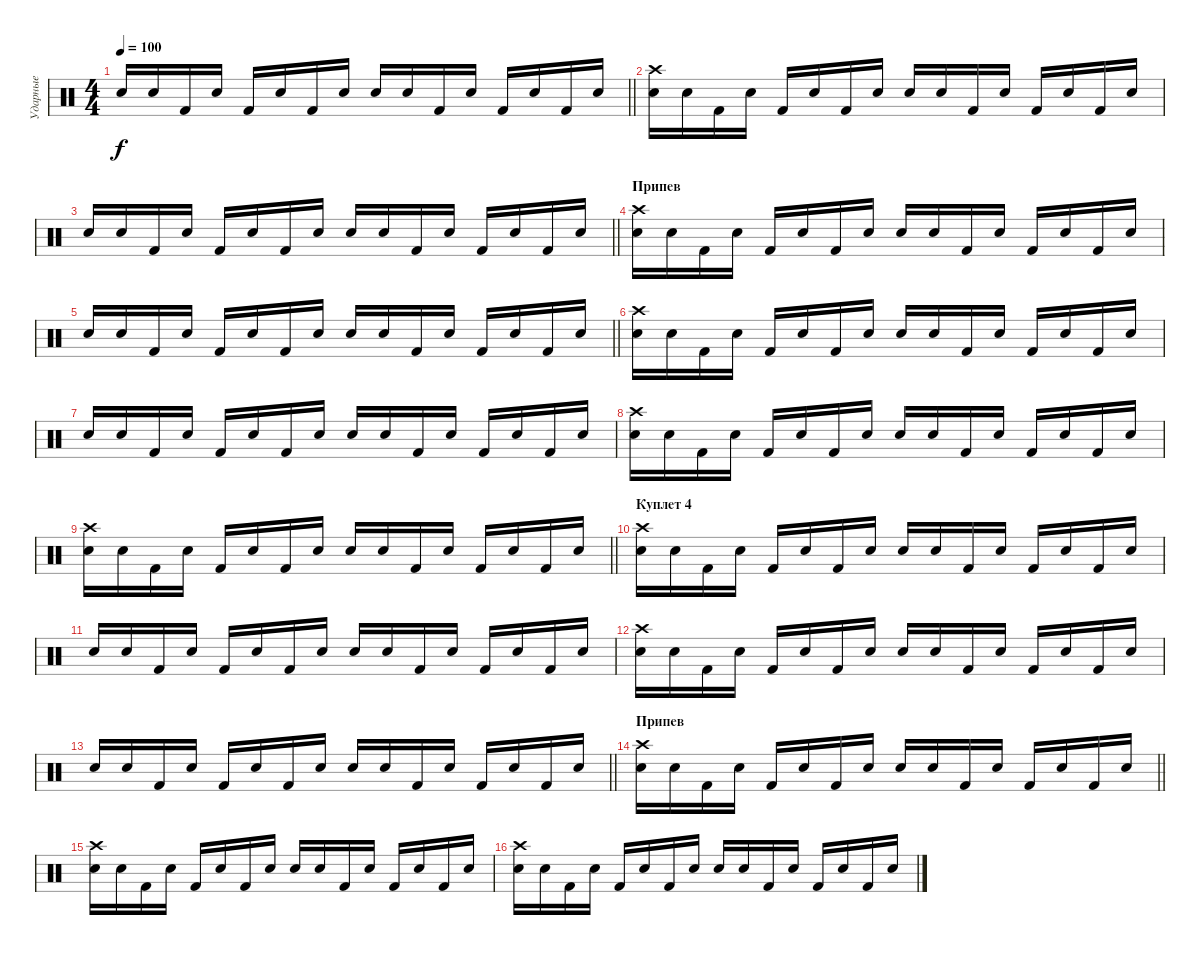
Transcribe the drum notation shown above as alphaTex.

\track ("Ударные" "Ударные") {instrument percussion}
\staff {score}
\articulation defaults
\ts (4 4)
\tempo 100
\clef neutral
\barLineRight lightlight
\ks c "Snare (hit) 2".16{dy f} "Snare (hit) 2".16 "Kick (hit) 2".16 "Snare (hit) 2".16 "Kick (hit) 2".16 "Snare (hit) 2".16 "Kick (hit) 2".16 "Snare (hit) 2".16 "Snare (hit) 2".16 "Snare (hit) 2".16 "Kick (hit) 2".16 "Snare (hit) 2".16 "Kick (hit) 2".16 "Snare (hit) 2".16 "Kick (hit) 2".16 "Snare (hit) 2".16
|
("Crash high (hit)" "Snare (hit) 2").16 "Snare (hit) 2".16 "Kick (hit) 2".16 "Snare (hit) 2".16 "Kick (hit) 2".16 "Snare (hit) 2".16 "Kick (hit) 2".16 "Snare (hit) 2".16 "Snare (hit) 2".16 "Snare (hit) 2".16 "Kick (hit) 2".16 "Snare (hit) 2".16 "Kick (hit) 2".16 "Snare (hit) 2".16 "Kick (hit) 2".16 "Snare (hit) 2".16 |
\barLineRight lightlight "Snare (hit) 2".16 "Snare (hit) 2".16 "Kick (hit) 2".16 "Snare (hit) 2".16 "Kick (hit) 2".16 "Snare (hit) 2".16 "Kick (hit) 2".16 "Snare (hit) 2".16 "Snare (hit) 2".16 "Snare (hit) 2".16 "Kick (hit) 2".16 "Snare (hit) 2".16 "Kick (hit) 2".16 "Snare (hit) 2".16 "Kick (hit) 2".16 "Snare (hit) 2".16
|
\section ("" "Припев")
("Crash high (hit)" "Snare (hit) 2").16 "Snare (hit) 2".16 "Kick (hit) 2".16 "Snare (hit) 2".16 "Kick (hit) 2".16 "Snare (hit) 2".16 "Kick (hit) 2".16 "Snare (hit) 2".16 "Snare (hit) 2".16 "Snare (hit) 2".16 "Kick (hit) 2".16 "Snare (hit) 2".16 "Kick (hit) 2".16 "Snare (hit) 2".16 "Kick (hit) 2".16 "Snare (hit) 2".16 |
\barLineRight lightlight "Snare (hit) 2".16 "Snare (hit) 2".16 "Kick (hit) 2".16 "Snare (hit) 2".16 "Kick (hit) 2".16 "Snare (hit) 2".16 "Kick (hit) 2".16 "Snare (hit) 2".16 "Snare (hit) 2".16 "Snare (hit) 2".16 "Kick (hit) 2".16 "Snare (hit) 2".16 "Kick (hit) 2".16 "Snare (hit) 2".16 "Kick (hit) 2".16 "Snare (hit) 2".16
|
("Crash high (hit)" "Snare (hit) 2").16 "Snare (hit) 2".16 "Kick (hit) 2".16 "Snare (hit) 2".16 "Kick (hit) 2".16 "Snare (hit) 2".16 "Kick (hit) 2".16 "Snare (hit) 2".16 "Snare (hit) 2".16 "Snare (hit) 2".16 "Kick (hit) 2".16 "Snare (hit) 2".16 "Kick (hit) 2".16 "Snare (hit) 2".16 "Kick (hit) 2".16 "Snare (hit) 2".16 |
"Snare (hit) 2".16 "Snare (hit) 2".16 "Kick (hit) 2".16 "Snare (hit) 2".16 "Kick (hit) 2".16 "Snare (hit) 2".16 "Kick (hit) 2".16 "Snare (hit) 2".16 "Snare (hit) 2".16 "Snare (hit) 2".16 "Kick (hit) 2".16 "Snare (hit) 2".16 "Kick (hit) 2".16 "Snare (hit) 2".16 "Kick (hit) 2".16 "Snare (hit) 2".16 |
("Crash high (hit)" "Snare (hit) 2").16 "Snare (hit) 2".16 "Kick (hit) 2".16 "Snare (hit) 2".16 "Kick (hit) 2".16 "Snare (hit) 2".16 "Kick (hit) 2".16 "Snare (hit) 2".16 "Snare (hit) 2".16 "Snare (hit) 2".16 "Kick (hit) 2".16 "Snare (hit) 2".16 "Kick (hit) 2".16 "Snare (hit) 2".16 "Kick (hit) 2".16 "Snare (hit) 2".16 |
\barLineRight lightlight
("Crash high (hit)" "Snare (hit) 2").16 "Snare (hit) 2".16 "Kick (hit) 2".16 "Snare (hit) 2".16 "Kick (hit) 2".16 "Snare (hit) 2".16 "Kick (hit) 2".16 "Snare (hit) 2".16 "Snare (hit) 2".16 "Snare (hit) 2".16 "Kick (hit) 2".16 "Snare (hit) 2".16 "Kick (hit) 2".16 "Snare (hit) 2".16 "Kick (hit) 2".16 "Snare (hit) 2".16 |
\section ("" "Куплет 4")
("Crash high (hit)" "Snare (hit) 2").16 "Snare (hit) 2".16 "Kick (hit) 2".16 "Snare (hit) 2".16 "Kick (hit) 2".16 "Snare (hit) 2".16 "Kick (hit) 2".16 "Snare (hit) 2".16 "Snare (hit) 2".16 "Snare (hit) 2".16 "Kick (hit) 2".16 "Snare (hit) 2".16 "Kick (hit) 2".16 "Snare (hit) 2".16 "Kick (hit) 2".16 "Snare (hit) 2".16 |
"Snare (hit) 2".16 "Snare (hit) 2".16 "Kick (hit) 2".16 "Snare (hit) 2".16 "Kick (hit) 2".16 "Snare (hit) 2".16 "Kick (hit) 2".16 "Snare (hit) 2".16 "Snare (hit) 2".16 "Snare (hit) 2".16 "Kick (hit) 2".16 "Snare (hit) 2".16 "Kick (hit) 2".16 "Snare (hit) 2".16 "Kick (hit) 2".16 "Snare (hit) 2".16 |
("Crash high (hit)" "Snare (hit) 2").16 "Snare (hit) 2".16 "Kick (hit) 2".16 "Snare (hit) 2".16 "Kick (hit) 2".16 "Snare (hit) 2".16 "Kick (hit) 2".16 "Snare (hit) 2".16 "Snare (hit) 2".16 "Snare (hit) 2".16 "Kick (hit) 2".16 "Snare (hit) 2".16 "Kick (hit) 2".16 "Snare (hit) 2".16 "Kick (hit) 2".16 "Snare (hit) 2".16 |
\barLineRight lightlight "Snare (hit) 2".16 "Snare (hit) 2".16 "Kick (hit) 2".16 "Snare (hit) 2".16 "Kick (hit) 2".16 "Snare (hit) 2".16 "Kick (hit) 2".16 "Snare (hit) 2".16 "Snare (hit) 2".16 "Snare (hit) 2".16 "Kick (hit) 2".16 "Snare (hit) 2".16 "Kick (hit) 2".16 "Snare (hit) 2".16 "Kick (hit) 2".16 "Snare (hit) 2".16
|
\section ("" "Припев")
\barLineRight lightlight
("Crash high (hit)" "Snare (hit) 2").16 "Snare (hit) 2".16 "Kick (hit) 2".16 "Snare (hit) 2".16 "Kick (hit) 2".16 "Snare (hit) 2".16 "Kick (hit) 2".16 "Snare (hit) 2".16 "Snare (hit) 2".16 "Snare (hit) 2".16 "Kick (hit) 2".16 "Snare (hit) 2".16 "Kick (hit) 2".16 "Snare (hit) 2".16 "Kick (hit) 2".16 "Snare (hit) 2".16 |
("Crash high (hit)" "Snare (hit) 2").16 "Snare (hit) 2".16 "Kick (hit) 2".16 "Snare (hit) 2".16 "Kick (hit) 2".16 "Snare (hit) 2".16 "Kick (hit) 2".16 "Snare (hit) 2".16 "Snare (hit) 2".16 "Snare (hit) 2".16 "Kick (hit) 2".16 "Snare (hit) 2".16 "Kick (hit) 2".16 "Snare (hit) 2".16 "Kick (hit) 2".16 "Snare (hit) 2".16 |
("Crash high (hit)" "Snare (hit) 2").16 "Snare (hit) 2".16 "Kick (hit) 2".16 "Snare (hit) 2".16 "Kick (hit) 2".16 "Snare (hit) 2".16 "Kick (hit) 2".16 "Snare (hit) 2".16 "Snare (hit) 2".16 "Snare (hit) 2".16 "Kick (hit) 2".16 "Snare (hit) 2".16 "Kick (hit) 2".16 "Snare (hit) 2".16 "Kick (hit) 2".16 "Snare (hit) 2".16
